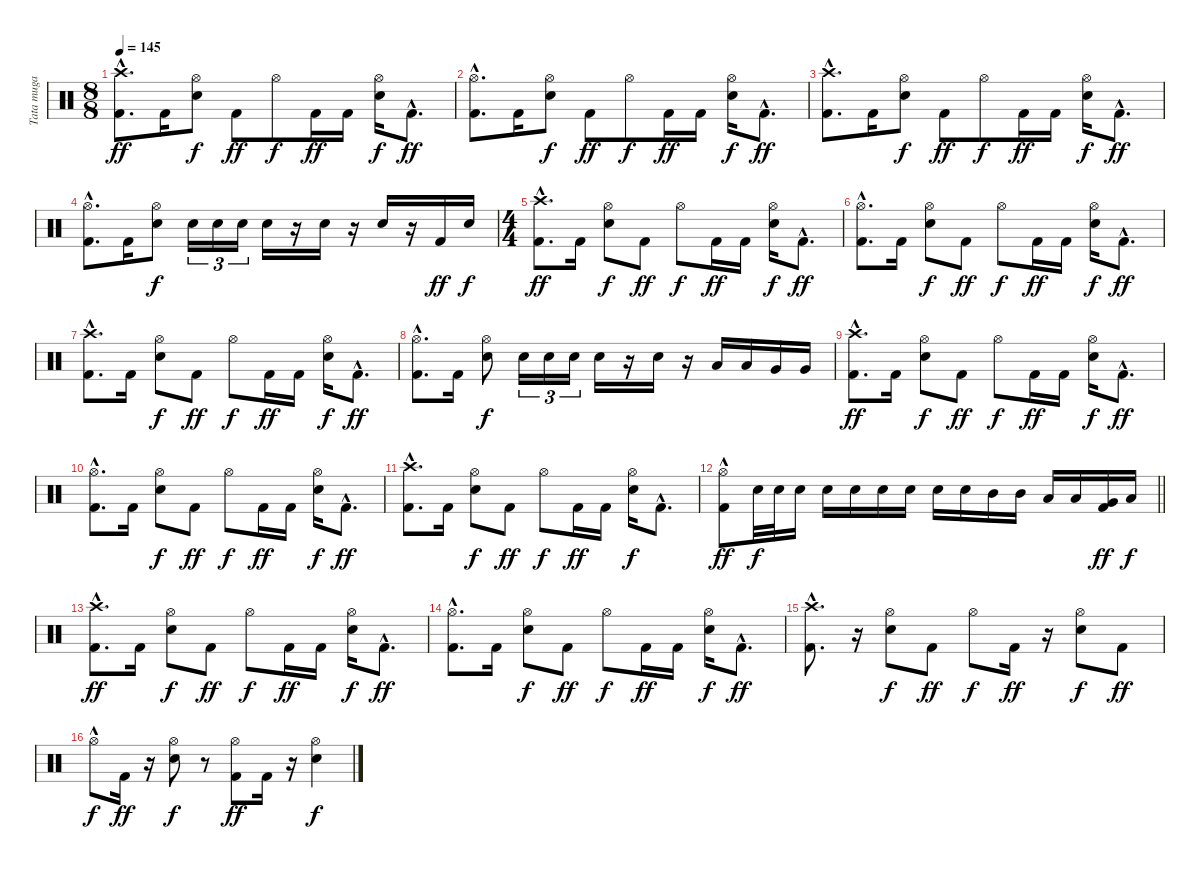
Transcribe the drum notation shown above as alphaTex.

\track ("Tata muga" "Tata muga") {instrument percussion}
\staff {score}
\articulation defaults
\ts (8 8)
\tempo 145
\clef neutral
\ks c
("Crash high (hit)"{hac} "Kick (hit) 2"{hac}).8{d dy ff} "Kick (hit) 2".16 ("Hi-Hat (open)" "Electric Snare (hit)").8{dy f} "Kick (hit) 2".8{dy ff} "Hi-Hat (open)".8{dy f} "Kick (hit) 2".16{dy ff} "Kick (hit) 2".16 ("Hi-Hat (open)" "Electric Snare (hit)").16{dy f} "Kick (hit) 2"{hac}.8{d dy ff} |
("Hi-Hat (open)"{hac} "Kick (hit) 2"{hac}).8{d} "Kick (hit) 2".16 ("Hi-Hat (open)" "Electric Snare (hit)").8{dy f} "Kick (hit) 2".8{dy ff} "Hi-Hat (open)".8{dy f} "Kick (hit) 2".16{dy ff} "Kick (hit) 2".16 ("Hi-Hat (open)" "Electric Snare (hit)").16{dy f} "Kick (hit) 2"{hac}.8{d dy ff} |
("Crash high (hit)"{hac} "Kick (hit) 2"{hac}).8{d} "Kick (hit) 2".16 ("Hi-Hat (open)" "Electric Snare (hit)").8{dy f} "Kick (hit) 2".8{dy ff} "Hi-Hat (open)".8{dy f} "Kick (hit) 2".16{dy ff} "Kick (hit) 2".16 ("Hi-Hat (open)" "Electric Snare (hit)").16{dy f} "Kick (hit) 2"{hac}.8{d dy ff} |
("Hi-Hat (open)"{hac} "Kick (hit) 2"{hac}).8{d} "Kick (hit) 2".16 ("Hi-Hat (open)" "Electric Snare (hit)").8{dy f} "Electric Snare (hit)".16{tu (3 2)} "Electric Snare (hit)".16{tu (3 2)} "Electric Snare (hit)".16{tu (3 2)} "Electric Snare (hit)".16 r.16 "Electric Snare (hit)".16 r.16 "Electric Snare (hit)".16 r.16 "Kick (hit) 2".16{dy ff} "Electric Snare (hit)".16{dy f} |
\ts (4 4)
("Crash high (hit)"{hac} "Kick (hit) 2"{hac}).8{d dy ff} "Kick (hit) 2".16 ("Hi-Hat (open)" "Electric Snare (hit)").8{dy f} "Kick (hit) 2".8{dy ff} "Hi-Hat (open)".8{dy f} "Kick (hit) 2".16{dy ff} "Kick (hit) 2".16 ("Hi-Hat (open)" "Electric Snare (hit)").16{dy f} "Kick (hit) 2"{hac}.8{d dy ff} |
("Hi-Hat (open)"{hac} "Kick (hit) 2"{hac}).8{d} "Kick (hit) 2".16 ("Hi-Hat (open)" "Electric Snare (hit)").8{dy f} "Kick (hit) 2".8{dy ff} "Hi-Hat (open)".8{dy f} "Kick (hit) 2".16{dy ff} "Kick (hit) 2".16 ("Hi-Hat (open)" "Electric Snare (hit)").16{dy f} "Kick (hit) 2"{hac}.8{d dy ff} |
("Crash high (hit)"{hac} "Kick (hit) 2"{hac}).8{d} "Kick (hit) 2".16 ("Hi-Hat (open)" "Electric Snare (hit)").8{dy f} "Kick (hit) 2".8{dy ff} "Hi-Hat (open)".8{dy f} "Kick (hit) 2".16{dy ff} "Kick (hit) 2".16 ("Hi-Hat (open)" "Electric Snare (hit)").16{dy f} "Kick (hit) 2"{hac}.8{d dy ff} |
("Hi-Hat (open)"{hac} "Kick (hit) 2"{hac}).8{d} "Kick (hit) 2".16 ("Hi-Hat (open)" "Electric Snare (hit)").8{dy f} "Electric Snare (hit)".16{tu (3 2)} "Electric Snare (hit)".16{tu (3 2)} "Electric Snare (hit)".16{tu (3 2)} "Electric Snare (hit)".16 r.16 "Electric Snare (hit)".16 r.16 "Low Tom (hit)".16 "Low Tom (hit)".16 "Very Low Tom (hit)".16 "Very Low Tom (hit)".16 |
("Crash high (hit)"{hac} "Kick (hit) 2"{hac}).8{d dy ff} "Kick (hit) 2".16 ("Hi-Hat (open)" "Electric Snare (hit)").8{dy f} "Kick (hit) 2".8{dy ff} "Hi-Hat (open)".8{dy f} "Kick (hit) 2".16{dy ff} "Kick (hit) 2".16 ("Hi-Hat (open)" "Electric Snare (hit)").16{dy f} "Kick (hit) 2"{hac}.8{d dy ff} |
("Hi-Hat (open)"{hac} "Kick (hit) 2"{hac}).8{d} "Kick (hit) 2".16 ("Hi-Hat (open)" "Electric Snare (hit)").8{dy f} "Kick (hit) 2".8{dy ff} "Hi-Hat (open)".8{dy f} "Kick (hit) 2".16{dy ff} "Kick (hit) 2".16 ("Hi-Hat (open)" "Electric Snare (hit)").16{dy f} "Kick (hit) 2"{hac}.8{d dy ff} |
("Crash high (hit)"{hac} "Kick (hit) 2"{hac}).8{d} "Kick (hit) 2".16 ("Hi-Hat (open)" "Electric Snare (hit)").8{dy f} "Kick (hit) 2".8{dy ff} "Hi-Hat (open)".8{dy f} "Kick (hit) 2".16{dy ff} "Kick (hit) 2".16 ("Hi-Hat (open)" "Electric Snare (hit)").16{dy f} "Kick (hit) 2"{hac}.8{d} |
\barLineRight lightlight
("Hi-Hat (open)"{hac} "Kick (hit) 2").8{dy ff} "Electric Snare (hit)".32{dy f} "Electric Snare (hit)".32 "Electric Snare (hit)".16 "Electric Snare (hit)".16 "Electric Snare (hit)".16 "Electric Snare (hit)".16 "Electric Snare (hit)".16 "Electric Snare (hit)".16 "Electric Snare (hit)".16 "Mid Tom (hit)".16 "Mid Tom (hit)".16 "Low Tom (hit)".16 "Low Tom (hit)".16 ("Kick (hit) 2" "Very Low Tom (hit)").16{dy ff} "Low Floor Tom (hit)".16{dy f} |
("Crash high (hit)"{hac} "Kick (hit) 2"{hac}).8{d dy ff} "Kick (hit) 2".16 ("Hi-Hat (open)" "Electric Snare (hit)").8{dy f} "Kick (hit) 2".8{dy ff} "Hi-Hat (open)".8{dy f} "Kick (hit) 2".16{dy ff} "Kick (hit) 2".16 ("Hi-Hat (open)" "Electric Snare (hit)").16{dy f} "Kick (hit) 2"{hac}.8{d dy ff} |
("Hi-Hat (open)"{hac} "Kick (hit) 2"{hac}).8{d} "Kick (hit) 2".16 ("Hi-Hat (open)" "Electric Snare (hit)").8{dy f} "Kick (hit) 2".8{dy ff} "Hi-Hat (open)".8{dy f} "Kick (hit) 2".16{dy ff} "Kick (hit) 2".16 ("Hi-Hat (open)" "Electric Snare (hit)").16{dy f} "Kick (hit) 2"{hac}.8{d dy ff} |
("Crash high (hit)"{hac} "Kick (hit) 2"{hac}).8{d} r.16 ("Hi-Hat (open)" "Electric Snare (hit)").8{dy f} "Kick (hit) 2".8{dy ff} "Hi-Hat (open)".8{dy f} "Kick (hit) 2".16{dy ff} r.16 ("Hi-Hat (open)" "Electric Snare (hit)").8{dy f} "Kick (hit) 2".8{dy ff} |
"Hi-Hat (open)"{hac}.8{dy f} "Kick (hit) 2".16{dy ff} r.16 ("Hi-Hat (open)" "Electric Snare (hit)").8{dy f} r.8 ("Hi-Hat (open)" "Kick (hit) 2").8{dy ff} "Kick (hit) 2".16 r.16 ("Hi-Hat (open)" "Electric Snare (hit)").4{dy f}
